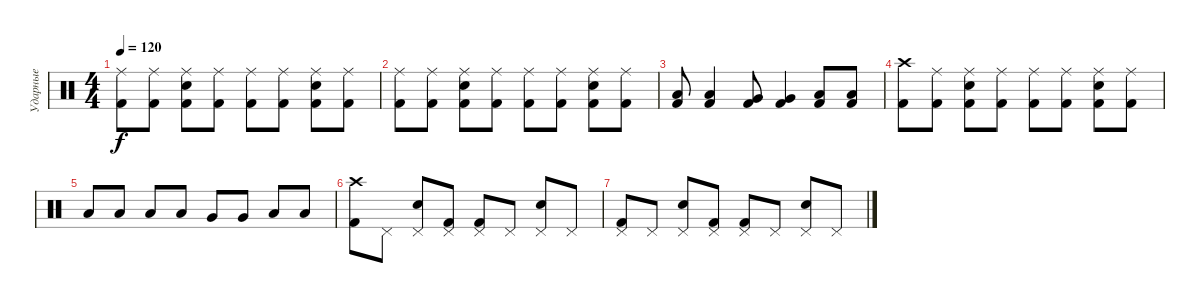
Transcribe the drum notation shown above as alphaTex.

\track ("Ударные" "Ударные") {instrument percussion}
\staff {score}
\articulation defaults
\ts (4 4)
\tempo 120
\clef neutral
\ks c
("Ride (middle)" "Kick (hit) 2").8{dy f} ("Ride (middle)" "Kick (hit) 2").8 ("Ride (middle)" "Snare (hit) 2" "Kick (hit) 2").8 ("Ride (middle)" "Kick (hit) 2").8 ("Ride (middle)" "Kick (hit) 2").8 ("Ride (middle)" "Kick (hit) 2").8 ("Ride (middle)" "Snare (hit) 2" "Kick (hit) 2").8 ("Ride (middle)" "Kick (hit) 2").8 |
("Ride (middle)" "Kick (hit) 2").8 ("Ride (middle)" "Kick (hit) 2").8 ("Ride (middle)" "Snare (hit) 2" "Kick (hit) 2").8 ("Ride (middle)" "Kick (hit) 2").8 ("Ride (middle)" "Kick (hit) 2").8 ("Ride (middle)" "Kick (hit) 2").8 ("Ride (middle)" "Snare (hit) 2" "Kick (hit) 2").8 ("Ride (middle)" "Kick (hit) 2").8 |
("Low Tom (hit)" "Kick (hit) 2").8 ("Low Tom (hit)" "Kick (hit) 2").4 ("Very Low Tom (hit)" "Kick (hit) 2").8 ("Very Low Tom (hit)" "Kick (hit) 2").4 ("Low Floor Tom (hit)" "Kick (hit) 2").8 ("Low Floor Tom (hit)" "Kick (hit) 2").8 |
("Crash high (hit)" "Kick (hit) 2").8 ("Ride (middle)" "Kick (hit) 2").8 ("Ride (middle)" "Snare (hit) 2" "Kick (hit) 2").8 ("Ride (middle)" "Kick (hit) 2").8 ("Ride (middle)" "Kick (hit) 2").8 ("Ride (middle)" "Kick (hit) 2").8 ("Ride (middle)" "Snare (hit) 2" "Kick (hit) 2").8 ("Ride (middle)" "Kick (hit) 2").8 |
"Low Tom (hit)".8 "Low Tom (hit)".8 "Low Tom (hit)".8 "Low Tom (hit)".8 "Very Low Tom (hit)".8 "Very Low Tom (hit)".8 "Low Floor Tom (hit)".8 "Low Floor Tom (hit)".8 |
("Crash high (hit)" "Kick (hit) 2").8 "Pedal Hi-Hat (hit)".8 ("Pedal Hi-Hat (hit)" "Snare (hit) 2").8 ("Pedal Hi-Hat (hit)" "Kick (hit) 2").8 ("Pedal Hi-Hat (hit)" "Kick (hit) 2").8 "Pedal Hi-Hat (hit)".8 ("Pedal Hi-Hat (hit)" "Snare (hit) 2").8 "Pedal Hi-Hat (hit)".8 |
("Pedal Hi-Hat (hit)" "Kick (hit) 2").8 "Pedal Hi-Hat (hit)".8 ("Pedal Hi-Hat (hit)" "Snare (hit) 2").8 ("Pedal Hi-Hat (hit)" "Kick (hit) 2").8 ("Pedal Hi-Hat (hit)" "Kick (hit) 2").8 "Pedal Hi-Hat (hit)".8 ("Pedal Hi-Hat (hit)" "Snare (hit) 2").8 "Pedal Hi-Hat (hit)".8
